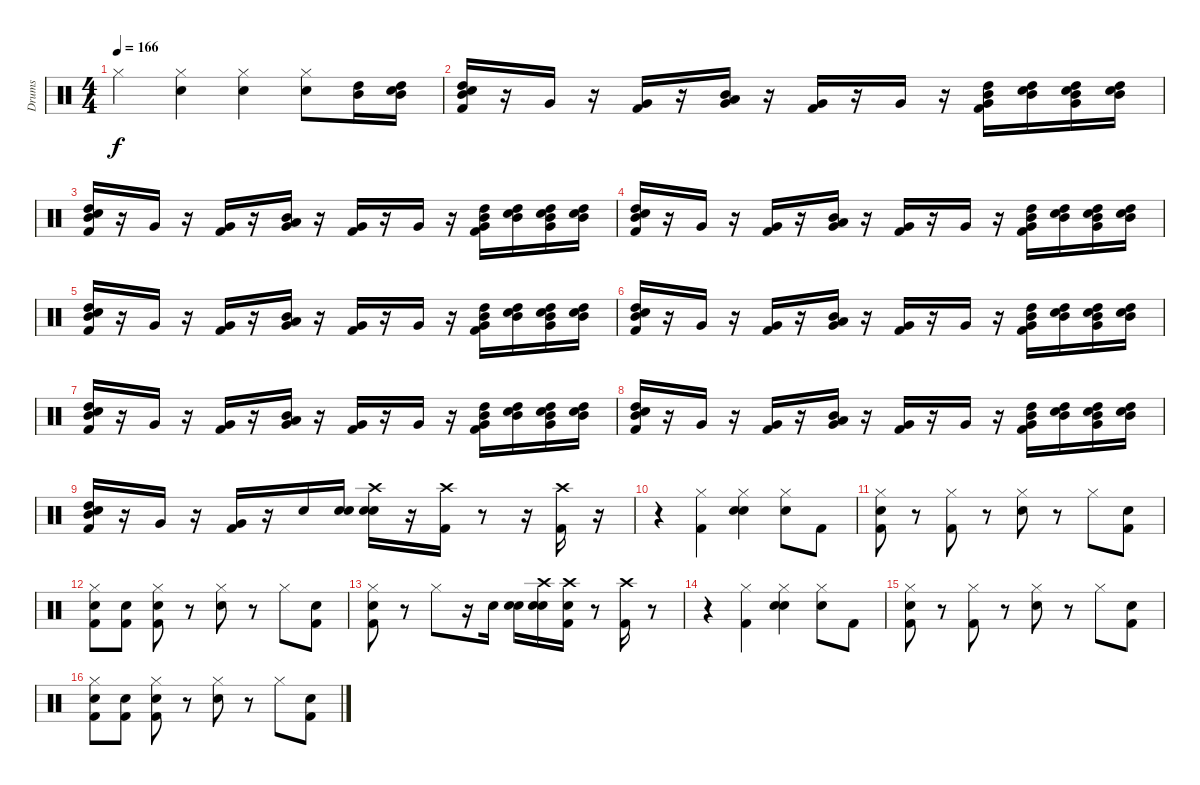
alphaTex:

\track ("Drums" "Drums") {instrument percussion}
\staff {score}
\articulation defaults
\ts (4 4)
\tempo 166
\clef neutral
\ks c "Hi-Hat (closed)".4{dy f}
("Snare (hit)" "Hi-Hat (closed)").4 ("Snare (hit)" "Hi-Hat (closed)").4 ("Snare (hit)" "Hi-Hat (closed)").8 ("High Tom (hit)" "Mid Tom (hit)").16 ("Snare (hit)" "High Tom (hit)" "Mid Tom (hit)").16 |
("Snare (hit)" "Mid Tom (hit)" "High Tom (hit)" "Kick (hit) 2").16 r.16 "Very Low Tom (hit)".16 r.16 ("Very Low Tom (hit)" "Kick (hit) 2").16 r.16 ("Mid Tom (hit)" "Very Low Tom (hit)" "Low Tom (hit)").16 r.16 ("Very Low Tom (hit)" "Kick (hit) 2").16 r.16 "Very Low Tom (hit)".16 r.16 ("High Tom (hit)" "Very Low Tom (hit)" "Mid Tom (hit)" "Kick (hit) 2").16 ("Snare (hit)" "High Tom (hit)" "Mid Tom (hit)").16 ("Snare (hit)" "High Tom (hit)" "Very Low Tom (hit)" "Mid Tom (hit)").16 ("Snare (hit)" "High Tom (hit)" "Mid Tom (hit)").16 |
("Snare (hit)" "High Tom (hit)" "Kick (hit) 2" "Mid Tom (hit)").16 r.16 "Very Low Tom (hit)".16 r.16 ("Very Low Tom (hit)" "Kick (hit) 2").16 r.16 ("Mid Tom (hit)" "Very Low Tom (hit)" "Low Tom (hit)").16 r.16 ("Very Low Tom (hit)" "Kick (hit) 2").16 r.16 "Very Low Tom (hit)".16 r.16 ("High Tom (hit)" "Very Low Tom (hit)" "Mid Tom (hit)" "Kick (hit) 2").16 ("Snare (hit)" "High Tom (hit)" "Mid Tom (hit)").16 ("Snare (hit)" "High Tom (hit)" "Very Low Tom (hit)" "Mid Tom (hit)").16 ("Snare (hit)" "High Tom (hit)" "Mid Tom (hit)").16 |
("Snare (hit)" "High Tom (hit)" "Kick (hit) 2" "Mid Tom (hit)").16 r.16 "Very Low Tom (hit)".16 r.16 ("Very Low Tom (hit)" "Kick (hit) 2").16 r.16 ("Mid Tom (hit)" "Very Low Tom (hit)" "Low Tom (hit)").16 r.16 ("Very Low Tom (hit)" "Kick (hit) 2").16 r.16 "Very Low Tom (hit)".16 r.16 ("High Tom (hit)" "Very Low Tom (hit)" "Mid Tom (hit)" "Kick (hit) 2").16 ("Snare (hit)" "High Tom (hit)" "Mid Tom (hit)").16 ("Snare (hit)" "High Tom (hit)" "Very Low Tom (hit)" "Mid Tom (hit)").16 ("Snare (hit)" "High Tom (hit)" "Mid Tom (hit)").16 |
("Snare (hit)" "High Tom (hit)" "Kick (hit) 2" "Mid Tom (hit)").16 r.16 "Very Low Tom (hit)".16 r.16 ("Very Low Tom (hit)" "Kick (hit) 2").16 r.16 ("Mid Tom (hit)" "Very Low Tom (hit)" "Low Tom (hit)").16 r.16 ("Very Low Tom (hit)" "Kick (hit) 2").16 r.16 "Very Low Tom (hit)".16 r.16 ("High Tom (hit)" "Very Low Tom (hit)" "Mid Tom (hit)" "Kick (hit) 2").16 ("Snare (hit)" "High Tom (hit)" "Mid Tom (hit)").16 ("Snare (hit)" "High Tom (hit)" "Very Low Tom (hit)" "Mid Tom (hit)").16 ("Snare (hit)" "High Tom (hit)" "Mid Tom (hit)").16 |
("Snare (hit)" "High Tom (hit)" "Kick (hit) 2" "Mid Tom (hit)").16 r.16 "Very Low Tom (hit)".16 r.16 ("Very Low Tom (hit)" "Kick (hit) 2").16 r.16 ("Mid Tom (hit)" "Very Low Tom (hit)" "Low Tom (hit)").16 r.16 ("Very Low Tom (hit)" "Kick (hit) 2").16 r.16 "Very Low Tom (hit)".16 r.16 ("High Tom (hit)" "Very Low Tom (hit)" "Mid Tom (hit)" "Kick (hit) 2").16 ("Snare (hit)" "High Tom (hit)" "Mid Tom (hit)").16 ("Snare (hit)" "High Tom (hit)" "Very Low Tom (hit)" "Mid Tom (hit)").16 ("Snare (hit)" "High Tom (hit)" "Mid Tom (hit)").16 |
("Snare (hit)" "High Tom (hit)" "Kick (hit) 2" "Mid Tom (hit)").16 r.16 "Very Low Tom (hit)".16 r.16 ("Very Low Tom (hit)" "Kick (hit) 2").16 r.16 ("Mid Tom (hit)" "Very Low Tom (hit)" "Low Tom (hit)").16 r.16 ("Very Low Tom (hit)" "Kick (hit) 2").16 r.16 "Very Low Tom (hit)".16 r.16 ("High Tom (hit)" "Very Low Tom (hit)" "Mid Tom (hit)" "Kick (hit) 2").16 ("Snare (hit)" "High Tom (hit)" "Mid Tom (hit)").16 ("Snare (hit)" "High Tom (hit)" "Very Low Tom (hit)" "Mid Tom (hit)").16 ("Snare (hit)" "High Tom (hit)" "Mid Tom (hit)").16 |
("Snare (hit)" "High Tom (hit)" "Kick (hit) 2" "Mid Tom (hit)").16 r.16 "Very Low Tom (hit)".16 r.16 ("Very Low Tom (hit)" "Kick (hit) 2").16 r.16 ("Mid Tom (hit)" "Very Low Tom (hit)" "Low Tom (hit)").16 r.16 ("Very Low Tom (hit)" "Kick (hit) 2").16 r.16 "Very Low Tom (hit)".16 r.16 ("High Tom (hit)" "Very Low Tom (hit)" "Mid Tom (hit)" "Kick (hit) 2").16 ("Snare (hit)" "High Tom (hit)" "Mid Tom (hit)").16 ("Snare (hit)" "High Tom (hit)" "Very Low Tom (hit)" "Mid Tom (hit)").16 ("Snare (hit)" "High Tom (hit)" "Mid Tom (hit)").16 |
("Snare (hit)" "Mid Tom (hit)" "High Tom (hit)" "Kick (hit) 2").16 r.16 "Very Low Tom (hit)".16 r.16 ("Kick (hit) 2" "Very Low Tom (hit)").16 r.16 "Electric Snare (hit)".16 ("Snare (hit)" "Electric Snare (hit)").16 ("Snare (hit)" "Crash high (hit)" "Electric Snare (hit)").16 r.16 ("Crash high (hit)" "Kick (hit) 2").16 r.8 r.16 ("Kick (hit) 2" "Crash high (hit)").16 r.16 |
r.4 ("Hi-Hat (closed)" "Kick (hit) 2").4 ("Snare (hit)" "Hi-Hat (closed)" "Electric Snare (hit)").4 ("Snare (hit)" "Hi-Hat (closed)").8 "Kick (hit) 2".8 |
("Snare (hit)" "Hi-Hat (closed)" "Kick (hit) 2").8 r.8 ("Hi-Hat (closed)" "Kick (hit) 2").8 r.8 ("Hi-Hat (closed)" "Electric Snare (hit)").8 r.8 "Hi-Hat (closed)".8 ("Snare (hit)" "Kick (hit) 2").8 |
("Snare (hit)" "Hi-Hat (closed)" "Kick (hit) 2").8 ("Snare (hit)" "Kick (hit) 2").8 ("Snare (hit)" "Hi-Hat (closed)" "Kick (hit) 2").8 r.8 ("Hi-Hat (closed)" "Electric Snare (hit)").8 r.8 "Hi-Hat (closed)".8 ("Snare (hit)" "Kick (hit) 2").8 |
("Snare (hit)" "Hi-Hat (closed)" "Kick (hit) 2").8 r.8 "Hi-Hat (closed)".8 r.16 "Electric Snare (hit)".16 ("Snare (hit)" "Electric Snare (hit)").16 ("Snare (hit)" "Crash high (hit)" "Electric Snare (hit)").16 ("Snare (hit)" "Crash high (hit)" "Kick (hit) 2").16 r.8 ("Kick (hit) 2" "Crash high (hit)").16 r.8 |
r.4 ("Hi-Hat (closed)" "Kick (hit) 2").4 ("Snare (hit)" "Hi-Hat (closed)" "Electric Snare (hit)").4 ("Snare (hit)" "Hi-Hat (closed)").8 "Kick (hit) 2".8 |
("Snare (hit)" "Hi-Hat (closed)" "Kick (hit) 2").8 r.8 ("Hi-Hat (closed)" "Kick (hit) 2").8 r.8 ("Hi-Hat (closed)" "Electric Snare (hit)").8 r.8 "Hi-Hat (closed)".8 ("Snare (hit)" "Kick (hit) 2").8 |
("Snare (hit)" "Hi-Hat (closed)" "Kick (hit) 2").8 ("Snare (hit)" "Kick (hit) 2").8 ("Snare (hit)" "Hi-Hat (closed)" "Kick (hit) 2").8 r.8 ("Hi-Hat (closed)" "Electric Snare (hit)").8 r.8 "Hi-Hat (closed)".8 ("Snare (hit)" "Kick (hit) 2").8
